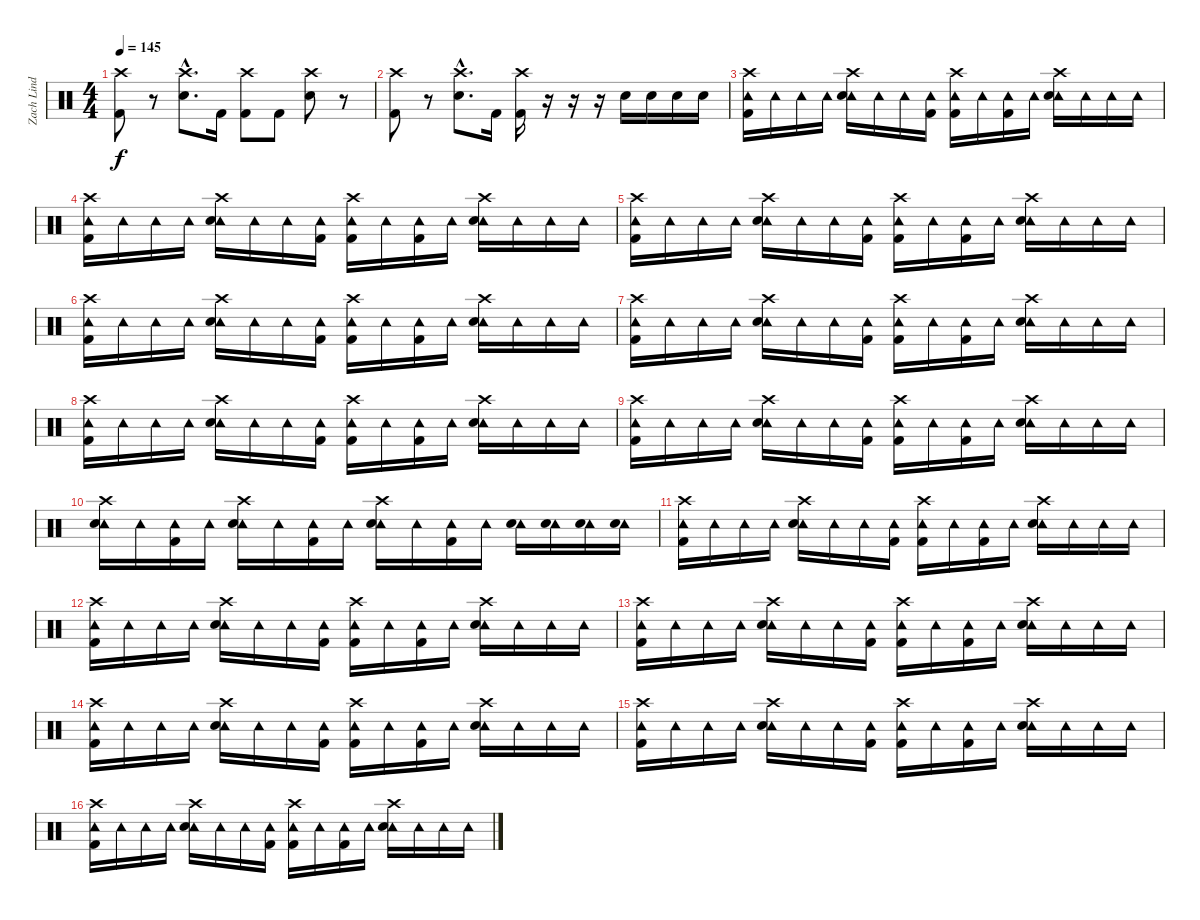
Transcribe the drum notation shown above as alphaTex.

\track ("Zach Lind" "Zach Lind") {instrument percussion}
\staff {score}
\articulation defaults
\ts (4 4)
\tempo 145
\clef neutral
\ks c
("Crash high (hit)" "Kick (hit) 2").8{dy f} r.8 ("Crash high (hit)"{hac} "Snare (hit) 2"{hac}).8{d} "Kick (hit) 2".16 ("Crash high (hit)" "Kick (hit) 2").8 "Kick (hit) 2".8 ("Crash high (hit)" "Snare (hit) 2").8 r.8 |
("Crash high (hit)" "Kick (hit) 2").8 r.8 ("Crash high (hit)"{hac} "Snare (hit) 2"{hac}).8{d} "Kick (hit) 2".16 ("Crash high (hit)" "Kick (hit) 2").16 r.16 r.16 r.16 "Snare (hit) 2".16 "Snare (hit) 2".16 "Snare (hit) 2".16 "Snare (hit) 2".16 |
("Crash high (hit)" "Tambourine (hit)" "Kick (hit) 2").16 "Tambourine (hit)".16 "Tambourine (hit)".16 "Tambourine (hit)".16 ("Crash high (hit)" "Tambourine (hit)" "Snare (hit) 2").16 "Tambourine (hit)".16 "Tambourine (hit)".16 ("Tambourine (hit)" "Kick (hit) 2").16 ("Crash high (hit)" "Tambourine (hit)" "Kick (hit) 2").16 "Tambourine (hit)".16 ("Tambourine (hit)" "Kick (hit) 2").16 "Tambourine (hit)".16 ("Crash high (hit)" "Tambourine (hit)" "Snare (hit) 2").16 "Tambourine (hit)".16 "Tambourine (hit)".16 "Tambourine (hit)".16 |
("Crash high (hit)" "Tambourine (hit)" "Kick (hit) 2").16 "Tambourine (hit)".16 "Tambourine (hit)".16 "Tambourine (hit)".16 ("Crash high (hit)" "Tambourine (hit)" "Snare (hit) 2").16 "Tambourine (hit)".16 "Tambourine (hit)".16 ("Tambourine (hit)" "Kick (hit) 2").16 ("Crash high (hit)" "Tambourine (hit)" "Kick (hit) 2").16 "Tambourine (hit)".16 ("Tambourine (hit)" "Kick (hit) 2").16 "Tambourine (hit)".16 ("Crash high (hit)" "Tambourine (hit)" "Snare (hit) 2").16 "Tambourine (hit)".16 "Tambourine (hit)".16 "Tambourine (hit)".16 |
("Crash high (hit)" "Tambourine (hit)" "Kick (hit) 2").16 "Tambourine (hit)".16 "Tambourine (hit)".16 "Tambourine (hit)".16 ("Crash high (hit)" "Tambourine (hit)" "Snare (hit) 2").16 "Tambourine (hit)".16 "Tambourine (hit)".16 ("Tambourine (hit)" "Kick (hit) 2").16 ("Crash high (hit)" "Tambourine (hit)" "Kick (hit) 2").16 "Tambourine (hit)".16 ("Tambourine (hit)" "Kick (hit) 2").16 "Tambourine (hit)".16 ("Crash high (hit)" "Tambourine (hit)" "Snare (hit) 2").16 "Tambourine (hit)".16 "Tambourine (hit)".16 "Tambourine (hit)".16 |
("Crash high (hit)" "Tambourine (hit)" "Kick (hit) 2").16 "Tambourine (hit)".16 "Tambourine (hit)".16 "Tambourine (hit)".16 ("Crash high (hit)" "Tambourine (hit)" "Snare (hit) 2").16 "Tambourine (hit)".16 "Tambourine (hit)".16 ("Tambourine (hit)" "Kick (hit) 2").16 ("Crash high (hit)" "Tambourine (hit)" "Kick (hit) 2").16 "Tambourine (hit)".16 ("Tambourine (hit)" "Kick (hit) 2").16 "Tambourine (hit)".16 ("Crash high (hit)" "Tambourine (hit)" "Snare (hit) 2").16 "Tambourine (hit)".16 "Tambourine (hit)".16 "Tambourine (hit)".16 |
("Crash high (hit)" "Tambourine (hit)" "Kick (hit) 2").16 "Tambourine (hit)".16 "Tambourine (hit)".16 "Tambourine (hit)".16 ("Crash high (hit)" "Tambourine (hit)" "Snare (hit) 2").16 "Tambourine (hit)".16 "Tambourine (hit)".16 ("Tambourine (hit)" "Kick (hit) 2").16 ("Crash high (hit)" "Tambourine (hit)" "Kick (hit) 2").16 "Tambourine (hit)".16 ("Tambourine (hit)" "Kick (hit) 2").16 "Tambourine (hit)".16 ("Crash high (hit)" "Tambourine (hit)" "Snare (hit) 2").16 "Tambourine (hit)".16 "Tambourine (hit)".16 "Tambourine (hit)".16 |
("Crash high (hit)" "Tambourine (hit)" "Kick (hit) 2").16 "Tambourine (hit)".16 "Tambourine (hit)".16 "Tambourine (hit)".16 ("Crash high (hit)" "Tambourine (hit)" "Snare (hit) 2").16 "Tambourine (hit)".16 "Tambourine (hit)".16 ("Tambourine (hit)" "Kick (hit) 2").16 ("Crash high (hit)" "Tambourine (hit)" "Kick (hit) 2").16 "Tambourine (hit)".16 ("Tambourine (hit)" "Kick (hit) 2").16 "Tambourine (hit)".16 ("Crash high (hit)" "Tambourine (hit)" "Snare (hit) 2").16 "Tambourine (hit)".16 "Tambourine (hit)".16 "Tambourine (hit)".16 |
("Crash high (hit)" "Tambourine (hit)" "Kick (hit) 2").16 "Tambourine (hit)".16 "Tambourine (hit)".16 "Tambourine (hit)".16 ("Crash high (hit)" "Tambourine (hit)" "Snare (hit) 2").16 "Tambourine (hit)".16 "Tambourine (hit)".16 ("Tambourine (hit)" "Kick (hit) 2").16 ("Crash high (hit)" "Tambourine (hit)" "Kick (hit) 2").16 "Tambourine (hit)".16 ("Tambourine (hit)" "Kick (hit) 2").16 "Tambourine (hit)".16 ("Crash high (hit)" "Tambourine (hit)" "Snare (hit) 2").16 "Tambourine (hit)".16 "Tambourine (hit)".16 "Tambourine (hit)".16 |
("Crash high (hit)" "Tambourine (hit)" "Snare (hit) 2").16 "Tambourine (hit)".16 ("Tambourine (hit)" "Kick (hit) 2").16 "Tambourine (hit)".16 ("Crash high (hit)" "Tambourine (hit)" "Snare (hit) 2").16 "Tambourine (hit)".16 ("Tambourine (hit)" "Kick (hit) 2").16 "Tambourine (hit)".16 ("Crash high (hit)" "Tambourine (hit)" "Snare (hit) 2").16 "Tambourine (hit)".16 ("Tambourine (hit)" "Kick (hit) 2").16 "Tambourine (hit)".16 ("Tambourine (hit)" "Snare (hit) 2").16 ("Tambourine (hit)" "Snare (hit) 2").16 ("Tambourine (hit)" "Snare (hit) 2").16 ("Tambourine (hit)" "Snare (hit) 2").16 |
("Crash high (hit)" "Tambourine (hit)" "Kick (hit) 2").16 "Tambourine (hit)".16 "Tambourine (hit)".16 "Tambourine (hit)".16 ("Crash high (hit)" "Tambourine (hit)" "Snare (hit) 2").16 "Tambourine (hit)".16 "Tambourine (hit)".16 ("Tambourine (hit)" "Kick (hit) 2").16 ("Crash high (hit)" "Tambourine (hit)" "Kick (hit) 2").16 "Tambourine (hit)".16 ("Tambourine (hit)" "Kick (hit) 2").16 "Tambourine (hit)".16 ("Crash high (hit)" "Tambourine (hit)" "Snare (hit) 2").16 "Tambourine (hit)".16 "Tambourine (hit)".16 "Tambourine (hit)".16 |
("Crash high (hit)" "Tambourine (hit)" "Kick (hit) 2").16 "Tambourine (hit)".16 "Tambourine (hit)".16 "Tambourine (hit)".16 ("Crash high (hit)" "Tambourine (hit)" "Snare (hit) 2").16 "Tambourine (hit)".16 "Tambourine (hit)".16 ("Tambourine (hit)" "Kick (hit) 2").16 ("Crash high (hit)" "Tambourine (hit)" "Kick (hit) 2").16 "Tambourine (hit)".16 ("Tambourine (hit)" "Kick (hit) 2").16 "Tambourine (hit)".16 ("Crash high (hit)" "Tambourine (hit)" "Snare (hit) 2").16 "Tambourine (hit)".16 "Tambourine (hit)".16 "Tambourine (hit)".16 |
("Crash high (hit)" "Tambourine (hit)" "Kick (hit) 2").16 "Tambourine (hit)".16 "Tambourine (hit)".16 "Tambourine (hit)".16 ("Crash high (hit)" "Tambourine (hit)" "Snare (hit) 2").16 "Tambourine (hit)".16 "Tambourine (hit)".16 ("Tambourine (hit)" "Kick (hit) 2").16 ("Crash high (hit)" "Tambourine (hit)" "Kick (hit) 2").16 "Tambourine (hit)".16 ("Tambourine (hit)" "Kick (hit) 2").16 "Tambourine (hit)".16 ("Crash high (hit)" "Tambourine (hit)" "Snare (hit) 2").16 "Tambourine (hit)".16 "Tambourine (hit)".16 "Tambourine (hit)".16 |
("Crash high (hit)" "Tambourine (hit)" "Kick (hit) 2").16 "Tambourine (hit)".16 "Tambourine (hit)".16 "Tambourine (hit)".16 ("Crash high (hit)" "Tambourine (hit)" "Snare (hit) 2").16 "Tambourine (hit)".16 "Tambourine (hit)".16 ("Tambourine (hit)" "Kick (hit) 2").16 ("Crash high (hit)" "Tambourine (hit)" "Kick (hit) 2").16 "Tambourine (hit)".16 ("Tambourine (hit)" "Kick (hit) 2").16 "Tambourine (hit)".16 ("Crash high (hit)" "Tambourine (hit)" "Snare (hit) 2").16 "Tambourine (hit)".16 "Tambourine (hit)".16 "Tambourine (hit)".16 |
("Crash high (hit)" "Tambourine (hit)" "Kick (hit) 2").16 "Tambourine (hit)".16 "Tambourine (hit)".16 "Tambourine (hit)".16 ("Crash high (hit)" "Tambourine (hit)" "Snare (hit) 2").16 "Tambourine (hit)".16 "Tambourine (hit)".16 ("Tambourine (hit)" "Kick (hit) 2").16 ("Crash high (hit)" "Tambourine (hit)" "Kick (hit) 2").16 "Tambourine (hit)".16 ("Tambourine (hit)" "Kick (hit) 2").16 "Tambourine (hit)".16 ("Crash high (hit)" "Tambourine (hit)" "Snare (hit) 2").16 "Tambourine (hit)".16 "Tambourine (hit)".16 "Tambourine (hit)".16 |
("Crash high (hit)" "Tambourine (hit)" "Kick (hit) 2").16 "Tambourine (hit)".16 "Tambourine (hit)".16 "Tambourine (hit)".16 ("Crash high (hit)" "Tambourine (hit)" "Snare (hit) 2").16 "Tambourine (hit)".16 "Tambourine (hit)".16 ("Tambourine (hit)" "Kick (hit) 2").16 ("Crash high (hit)" "Tambourine (hit)" "Kick (hit) 2").16 "Tambourine (hit)".16 ("Tambourine (hit)" "Kick (hit) 2").16 "Tambourine (hit)".16 ("Crash high (hit)" "Tambourine (hit)" "Snare (hit) 2").16 "Tambourine (hit)".16 "Tambourine (hit)".16 "Tambourine (hit)".16
